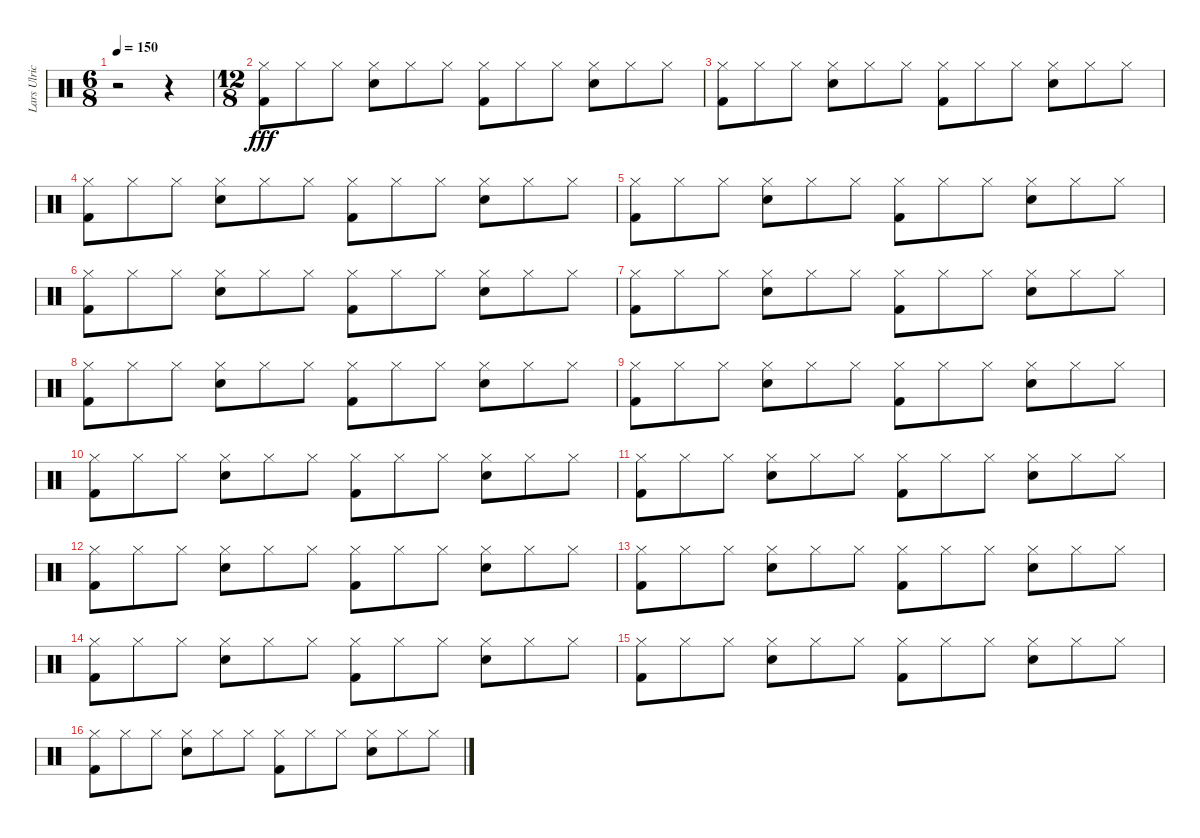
\track ("Lars Ulrich (Drums)" "Lars Ulric") {instrument percussion}
\staff {score}
\articulation defaults
\ts (6 8)
\tempo 150
\clef neutral
\ks c
r.2{dy fff} r.4 |
\ts (12 8)
("Hi-Hat (closed)" "Kick (hit) 2").8 "Hi-Hat (closed)".8 "Hi-Hat (closed)".8 ("Hi-Hat (closed)" "Electric Snare (hit)").8 "Hi-Hat (closed)".8 "Hi-Hat (closed)".8 ("Hi-Hat (closed)" "Kick (hit) 2").8 "Hi-Hat (closed)".8 "Hi-Hat (closed)".8 ("Hi-Hat (closed)" "Electric Snare (hit)").8 "Hi-Hat (closed)".8 "Hi-Hat (closed)".8 |
("Hi-Hat (closed)" "Kick (hit) 2").8 "Hi-Hat (closed)".8 "Hi-Hat (closed)".8 ("Hi-Hat (closed)" "Electric Snare (hit)").8 "Hi-Hat (closed)".8 "Hi-Hat (closed)".8 ("Hi-Hat (closed)" "Kick (hit) 2").8 "Hi-Hat (closed)".8 "Hi-Hat (closed)".8 ("Hi-Hat (closed)" "Electric Snare (hit)").8 "Hi-Hat (closed)".8 "Hi-Hat (closed)".8 |
("Hi-Hat (closed)" "Kick (hit) 2").8 "Hi-Hat (closed)".8 "Hi-Hat (closed)".8 ("Hi-Hat (closed)" "Electric Snare (hit)").8 "Hi-Hat (closed)".8 "Hi-Hat (closed)".8 ("Hi-Hat (closed)" "Kick (hit) 2").8 "Hi-Hat (closed)".8 "Hi-Hat (closed)".8 ("Hi-Hat (closed)" "Electric Snare (hit)").8 "Hi-Hat (closed)".8 "Hi-Hat (closed)".8 |
("Hi-Hat (closed)" "Kick (hit) 2").8 "Hi-Hat (closed)".8 "Hi-Hat (closed)".8 ("Hi-Hat (closed)" "Electric Snare (hit)").8 "Hi-Hat (closed)".8 "Hi-Hat (closed)".8 ("Hi-Hat (closed)" "Kick (hit) 2").8 "Hi-Hat (closed)".8 "Hi-Hat (closed)".8 ("Hi-Hat (closed)" "Electric Snare (hit)").8 "Hi-Hat (closed)".8 "Hi-Hat (closed)".8 |
("Hi-Hat (closed)" "Kick (hit) 2").8 "Hi-Hat (closed)".8 "Hi-Hat (closed)".8 ("Hi-Hat (closed)" "Electric Snare (hit)").8 "Hi-Hat (closed)".8 "Hi-Hat (closed)".8 ("Hi-Hat (closed)" "Kick (hit) 2").8 "Hi-Hat (closed)".8 "Hi-Hat (closed)".8 ("Hi-Hat (closed)" "Electric Snare (hit)").8 "Hi-Hat (closed)".8 "Hi-Hat (closed)".8 |
("Hi-Hat (closed)" "Kick (hit) 2").8 "Hi-Hat (closed)".8 "Hi-Hat (closed)".8 ("Hi-Hat (closed)" "Electric Snare (hit)").8 "Hi-Hat (closed)".8 "Hi-Hat (closed)".8 ("Hi-Hat (closed)" "Kick (hit) 2").8 "Hi-Hat (closed)".8 "Hi-Hat (closed)".8 ("Hi-Hat (closed)" "Electric Snare (hit)").8 "Hi-Hat (closed)".8 "Hi-Hat (closed)".8 |
("Hi-Hat (closed)" "Kick (hit) 2").8 "Hi-Hat (closed)".8 "Hi-Hat (closed)".8 ("Hi-Hat (closed)" "Electric Snare (hit)").8 "Hi-Hat (closed)".8 "Hi-Hat (closed)".8 ("Hi-Hat (closed)" "Kick (hit) 2").8 "Hi-Hat (closed)".8 "Hi-Hat (closed)".8 ("Hi-Hat (closed)" "Electric Snare (hit)").8 "Hi-Hat (closed)".8 "Hi-Hat (closed)".8 |
("Hi-Hat (closed)" "Kick (hit) 2").8 "Hi-Hat (closed)".8 "Hi-Hat (closed)".8 ("Hi-Hat (closed)" "Electric Snare (hit)").8 "Hi-Hat (closed)".8 "Hi-Hat (closed)".8 ("Hi-Hat (closed)" "Kick (hit) 2").8 "Hi-Hat (closed)".8 "Hi-Hat (closed)".8 ("Hi-Hat (closed)" "Electric Snare (hit)").8 "Hi-Hat (closed)".8 "Hi-Hat (closed)".8 |
("Hi-Hat (closed)" "Kick (hit) 2").8 "Hi-Hat (closed)".8 "Hi-Hat (closed)".8 ("Hi-Hat (closed)" "Electric Snare (hit)").8 "Hi-Hat (closed)".8 "Hi-Hat (closed)".8 ("Hi-Hat (closed)" "Kick (hit) 2").8 "Hi-Hat (closed)".8 "Hi-Hat (closed)".8 ("Hi-Hat (closed)" "Electric Snare (hit)").8 "Hi-Hat (closed)".8 "Hi-Hat (closed)".8 |
("Hi-Hat (closed)" "Kick (hit) 2").8 "Hi-Hat (closed)".8 "Hi-Hat (closed)".8 ("Hi-Hat (closed)" "Electric Snare (hit)").8 "Hi-Hat (closed)".8 "Hi-Hat (closed)".8 ("Hi-Hat (closed)" "Kick (hit) 2").8 "Hi-Hat (closed)".8 "Hi-Hat (closed)".8 ("Hi-Hat (closed)" "Electric Snare (hit)").8 "Hi-Hat (closed)".8 "Hi-Hat (closed)".8 |
("Hi-Hat (closed)" "Kick (hit) 2").8 "Hi-Hat (closed)".8 "Hi-Hat (closed)".8 ("Hi-Hat (closed)" "Electric Snare (hit)").8 "Hi-Hat (closed)".8 "Hi-Hat (closed)".8 ("Hi-Hat (closed)" "Kick (hit) 2").8 "Hi-Hat (closed)".8 "Hi-Hat (closed)".8 ("Hi-Hat (closed)" "Electric Snare (hit)").8 "Hi-Hat (closed)".8 "Hi-Hat (closed)".8 |
("Hi-Hat (closed)" "Kick (hit) 2").8 "Hi-Hat (closed)".8 "Hi-Hat (closed)".8 ("Hi-Hat (closed)" "Electric Snare (hit)").8 "Hi-Hat (closed)".8 "Hi-Hat (closed)".8 ("Hi-Hat (closed)" "Kick (hit) 2").8 "Hi-Hat (closed)".8 "Hi-Hat (closed)".8 ("Hi-Hat (closed)" "Electric Snare (hit)").8 "Hi-Hat (closed)".8 "Hi-Hat (closed)".8 |
("Hi-Hat (closed)" "Kick (hit) 2").8 "Hi-Hat (closed)".8 "Hi-Hat (closed)".8 ("Hi-Hat (closed)" "Electric Snare (hit)").8 "Hi-Hat (closed)".8 "Hi-Hat (closed)".8 ("Hi-Hat (closed)" "Kick (hit) 2").8 "Hi-Hat (closed)".8 "Hi-Hat (closed)".8 ("Hi-Hat (closed)" "Electric Snare (hit)").8 "Hi-Hat (closed)".8 "Hi-Hat (closed)".8 |
("Hi-Hat (closed)" "Kick (hit) 2").8 "Hi-Hat (closed)".8 "Hi-Hat (closed)".8 ("Hi-Hat (closed)" "Electric Snare (hit)").8 "Hi-Hat (closed)".8 "Hi-Hat (closed)".8 ("Hi-Hat (closed)" "Kick (hit) 2").8 "Hi-Hat (closed)".8 "Hi-Hat (closed)".8 ("Hi-Hat (closed)" "Electric Snare (hit)").8 "Hi-Hat (closed)".8 "Hi-Hat (closed)".8 |
("Hi-Hat (closed)" "Kick (hit) 2").8 "Hi-Hat (closed)".8 "Hi-Hat (closed)".8 ("Hi-Hat (closed)" "Electric Snare (hit)").8 "Hi-Hat (closed)".8 "Hi-Hat (closed)".8 ("Hi-Hat (closed)" "Kick (hit) 2").8 "Hi-Hat (closed)".8 "Hi-Hat (closed)".8 ("Hi-Hat (closed)" "Electric Snare (hit)").8 "Hi-Hat (closed)".8 "Hi-Hat (closed)".8
